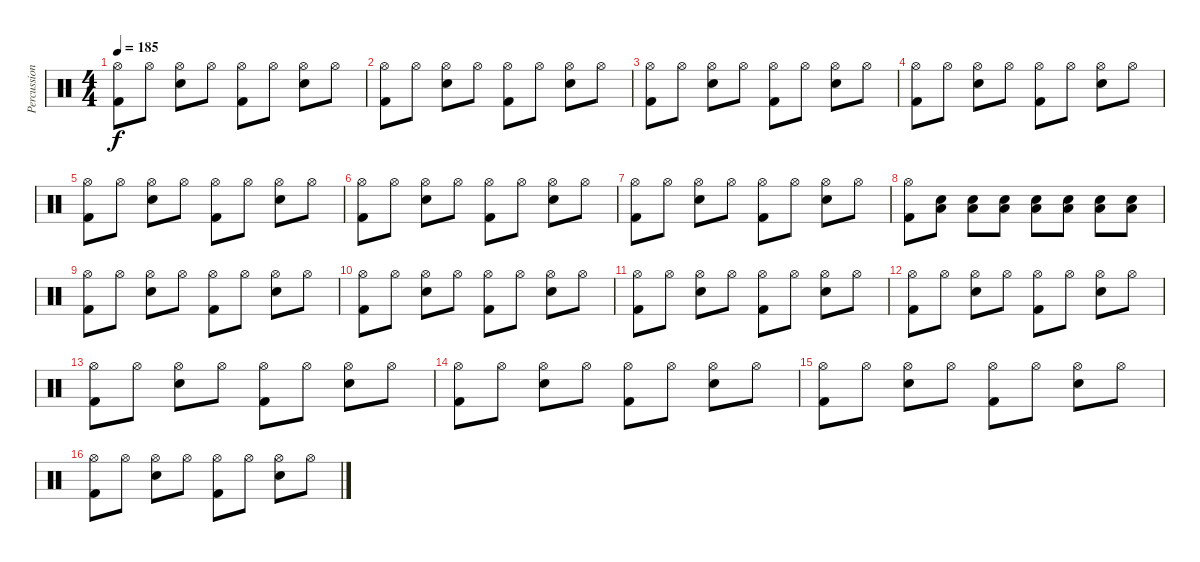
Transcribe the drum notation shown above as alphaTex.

\track ("Percussion" "Percussion") {instrument percussion}
\staff {score}
\articulation defaults
\ts (4 4)
\tempo 185
\clef neutral
\ks c
("Hi-Hat (open)" "Kick (hit) 2").8{dy f} "Hi-Hat (open)".8 ("Hi-Hat (open)" "Snare (hit) 2").8 "Hi-Hat (open)".8 ("Hi-Hat (open)" "Kick (hit) 2").8 "Hi-Hat (open)".8 ("Hi-Hat (open)" "Snare (hit) 2").8 "Hi-Hat (open)".8 |
("Hi-Hat (open)" "Kick (hit) 2").8 "Hi-Hat (open)".8 ("Hi-Hat (open)" "Snare (hit) 2").8 "Hi-Hat (open)".8 ("Hi-Hat (open)" "Kick (hit) 2").8 "Hi-Hat (open)".8 ("Hi-Hat (open)" "Snare (hit) 2").8 "Hi-Hat (open)".8 |
("Hi-Hat (open)" "Kick (hit) 2").8 "Hi-Hat (open)".8 ("Hi-Hat (open)" "Snare (hit) 2").8 "Hi-Hat (open)".8 ("Hi-Hat (open)" "Kick (hit) 2").8 "Hi-Hat (open)".8 ("Hi-Hat (open)" "Snare (hit) 2").8 "Hi-Hat (open)".8 |
("Hi-Hat (open)" "Kick (hit) 2").8 "Hi-Hat (open)".8 ("Hi-Hat (open)" "Snare (hit) 2").8 "Hi-Hat (open)".8 ("Hi-Hat (open)" "Kick (hit) 2").8 "Hi-Hat (open)".8 ("Hi-Hat (open)" "Snare (hit) 2").8 "Hi-Hat (open)".8 |
("Hi-Hat (open)" "Kick (hit) 2").8 "Hi-Hat (open)".8 ("Hi-Hat (open)" "Snare (hit) 2").8 "Hi-Hat (open)".8 ("Hi-Hat (open)" "Kick (hit) 2").8 "Hi-Hat (open)".8 ("Hi-Hat (open)" "Snare (hit) 2").8 "Hi-Hat (open)".8 |
("Hi-Hat (open)" "Kick (hit) 2").8 "Hi-Hat (open)".8 ("Hi-Hat (open)" "Snare (hit) 2").8 "Hi-Hat (open)".8 ("Hi-Hat (open)" "Kick (hit) 2").8 "Hi-Hat (open)".8 ("Hi-Hat (open)" "Snare (hit) 2").8 "Hi-Hat (open)".8 |
("Hi-Hat (open)" "Kick (hit) 2").8 "Hi-Hat (open)".8 ("Hi-Hat (open)" "Snare (hit) 2").8 "Hi-Hat (open)".8 ("Hi-Hat (open)" "Kick (hit) 2").8 "Hi-Hat (open)".8 ("Hi-Hat (open)" "Snare (hit) 2").8 "Hi-Hat (open)".8 |
("Hi-Hat (open)" "Kick (hit) 2").8 ("Low Tom (hit)" "Snare (hit) 2").8 ("Low Tom (hit)" "Snare (hit) 2").8 ("Low Tom (hit)" "Snare (hit) 2").8 ("Low Tom (hit)" "Snare (hit) 2").8 ("Low Tom (hit)" "Snare (hit) 2").8 ("Low Tom (hit)" "Snare (hit) 2").8 ("Low Tom (hit)" "Snare (hit) 2").8 |
("Hi-Hat (open)" "Kick (hit) 2").8 "Hi-Hat (open)".8 ("Hi-Hat (open)" "Snare (hit) 2").8 "Hi-Hat (open)".8 ("Hi-Hat (open)" "Kick (hit) 2").8 "Hi-Hat (open)".8 ("Hi-Hat (open)" "Snare (hit) 2").8 "Hi-Hat (open)".8 |
("Hi-Hat (open)" "Kick (hit) 2").8 "Hi-Hat (open)".8 ("Hi-Hat (open)" "Snare (hit) 2").8 "Hi-Hat (open)".8 ("Hi-Hat (open)" "Kick (hit) 2").8 "Hi-Hat (open)".8 ("Hi-Hat (open)" "Snare (hit) 2").8 "Hi-Hat (open)".8 |
("Hi-Hat (open)" "Kick (hit) 2").8 "Hi-Hat (open)".8 ("Hi-Hat (open)" "Snare (hit) 2").8 "Hi-Hat (open)".8 ("Hi-Hat (open)" "Kick (hit) 2").8 "Hi-Hat (open)".8 ("Hi-Hat (open)" "Snare (hit) 2").8 "Hi-Hat (open)".8 |
("Hi-Hat (open)" "Kick (hit) 2").8 "Hi-Hat (open)".8 ("Hi-Hat (open)" "Snare (hit) 2").8 "Hi-Hat (open)".8 ("Hi-Hat (open)" "Kick (hit) 2").8 "Hi-Hat (open)".8 ("Hi-Hat (open)" "Snare (hit) 2").8 "Hi-Hat (open)".8 |
("Hi-Hat (open)" "Kick (hit) 2").8 "Hi-Hat (open)".8 ("Hi-Hat (open)" "Snare (hit) 2").8 "Hi-Hat (open)".8 ("Hi-Hat (open)" "Kick (hit) 2").8 "Hi-Hat (open)".8 ("Hi-Hat (open)" "Snare (hit) 2").8 "Hi-Hat (open)".8 |
("Hi-Hat (open)" "Kick (hit) 2").8 "Hi-Hat (open)".8 ("Hi-Hat (open)" "Snare (hit) 2").8 "Hi-Hat (open)".8 ("Hi-Hat (open)" "Kick (hit) 2").8 "Hi-Hat (open)".8 ("Hi-Hat (open)" "Snare (hit) 2").8 "Hi-Hat (open)".8 |
("Hi-Hat (open)" "Kick (hit) 2").8 "Hi-Hat (open)".8 ("Hi-Hat (open)" "Snare (hit) 2").8 "Hi-Hat (open)".8 ("Hi-Hat (open)" "Kick (hit) 2").8 "Hi-Hat (open)".8 ("Hi-Hat (open)" "Snare (hit) 2").8 "Hi-Hat (open)".8 |
("Hi-Hat (open)" "Kick (hit) 2").8 "Hi-Hat (open)".8 ("Hi-Hat (open)" "Snare (hit) 2").8 "Hi-Hat (open)".8 ("Hi-Hat (open)" "Kick (hit) 2").8 "Hi-Hat (open)".8 ("Hi-Hat (open)" "Snare (hit) 2").8 "Hi-Hat (open)".8
